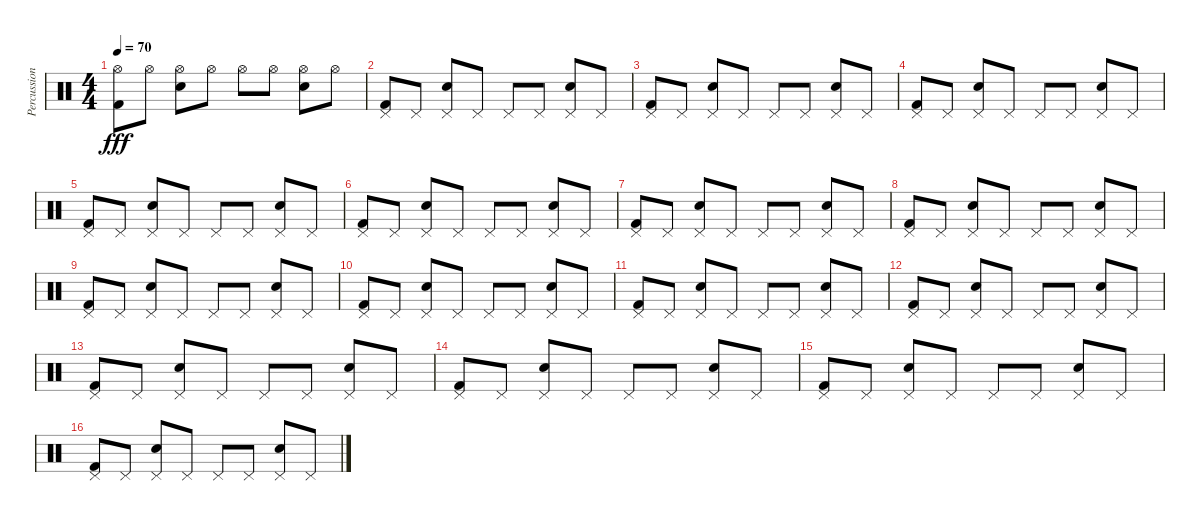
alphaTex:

\track ("Percussions" "Percussion") {instrument percussion}
\staff {score}
\articulation defaults
\ts (4 4)
\tempo 70
\clef neutral
\ks c
("Hi-Hat (open)" "Kick (hit) 2").8{dy fff} "Hi-Hat (open)".8 ("Hi-Hat (open)" "Electric Snare (hit)").8 "Hi-Hat (open)".8 "Hi-Hat (open)".8 "Hi-Hat (open)".8 ("Hi-Hat (open)" "Electric Snare (hit)").8 "Hi-Hat (open)".8 |
("Pedal Hi-Hat (hit)" "Kick (hit) 2").8 "Pedal Hi-Hat (hit)".8 ("Pedal Hi-Hat (hit)" "Electric Snare (hit)").8 "Pedal Hi-Hat (hit)".8 "Pedal Hi-Hat (hit)".8 "Pedal Hi-Hat (hit)".8 ("Pedal Hi-Hat (hit)" "Electric Snare (hit)").8 "Pedal Hi-Hat (hit)".8 |
("Pedal Hi-Hat (hit)" "Kick (hit) 2").8 "Pedal Hi-Hat (hit)".8 ("Pedal Hi-Hat (hit)" "Electric Snare (hit)").8 "Pedal Hi-Hat (hit)".8 "Pedal Hi-Hat (hit)".8 "Pedal Hi-Hat (hit)".8 ("Pedal Hi-Hat (hit)" "Electric Snare (hit)").8 "Pedal Hi-Hat (hit)".8 |
("Pedal Hi-Hat (hit)" "Kick (hit) 2").8 "Pedal Hi-Hat (hit)".8 ("Pedal Hi-Hat (hit)" "Electric Snare (hit)").8 "Pedal Hi-Hat (hit)".8 "Pedal Hi-Hat (hit)".8 "Pedal Hi-Hat (hit)".8 ("Pedal Hi-Hat (hit)" "Electric Snare (hit)").8 "Pedal Hi-Hat (hit)".8 |
("Pedal Hi-Hat (hit)" "Kick (hit) 2").8 "Pedal Hi-Hat (hit)".8 ("Pedal Hi-Hat (hit)" "Electric Snare (hit)").8 "Pedal Hi-Hat (hit)".8 "Pedal Hi-Hat (hit)".8 "Pedal Hi-Hat (hit)".8 ("Pedal Hi-Hat (hit)" "Electric Snare (hit)").8 "Pedal Hi-Hat (hit)".8 |
("Pedal Hi-Hat (hit)" "Kick (hit) 2").8 "Pedal Hi-Hat (hit)".8 ("Pedal Hi-Hat (hit)" "Electric Snare (hit)").8 "Pedal Hi-Hat (hit)".8 "Pedal Hi-Hat (hit)".8 "Pedal Hi-Hat (hit)".8 ("Pedal Hi-Hat (hit)" "Electric Snare (hit)").8 "Pedal Hi-Hat (hit)".8 |
("Pedal Hi-Hat (hit)" "Kick (hit) 2").8 "Pedal Hi-Hat (hit)".8 ("Pedal Hi-Hat (hit)" "Electric Snare (hit)").8 "Pedal Hi-Hat (hit)".8 "Pedal Hi-Hat (hit)".8 "Pedal Hi-Hat (hit)".8 ("Pedal Hi-Hat (hit)" "Electric Snare (hit)").8 "Pedal Hi-Hat (hit)".8 |
("Pedal Hi-Hat (hit)" "Kick (hit) 2").8 "Pedal Hi-Hat (hit)".8 ("Pedal Hi-Hat (hit)" "Electric Snare (hit)").8 "Pedal Hi-Hat (hit)".8 "Pedal Hi-Hat (hit)".8 "Pedal Hi-Hat (hit)".8 ("Pedal Hi-Hat (hit)" "Electric Snare (hit)").8 "Pedal Hi-Hat (hit)".8 |
("Pedal Hi-Hat (hit)" "Kick (hit) 2").8 "Pedal Hi-Hat (hit)".8 ("Pedal Hi-Hat (hit)" "Electric Snare (hit)").8 "Pedal Hi-Hat (hit)".8 "Pedal Hi-Hat (hit)".8 "Pedal Hi-Hat (hit)".8 ("Pedal Hi-Hat (hit)" "Electric Snare (hit)").8 "Pedal Hi-Hat (hit)".8 |
("Pedal Hi-Hat (hit)" "Kick (hit) 2").8 "Pedal Hi-Hat (hit)".8 ("Pedal Hi-Hat (hit)" "Electric Snare (hit)").8 "Pedal Hi-Hat (hit)".8 "Pedal Hi-Hat (hit)".8 "Pedal Hi-Hat (hit)".8 ("Pedal Hi-Hat (hit)" "Electric Snare (hit)").8 "Pedal Hi-Hat (hit)".8 |
("Pedal Hi-Hat (hit)" "Kick (hit) 2").8 "Pedal Hi-Hat (hit)".8 ("Pedal Hi-Hat (hit)" "Electric Snare (hit)").8 "Pedal Hi-Hat (hit)".8 "Pedal Hi-Hat (hit)".8 "Pedal Hi-Hat (hit)".8 ("Pedal Hi-Hat (hit)" "Electric Snare (hit)").8 "Pedal Hi-Hat (hit)".8 |
("Pedal Hi-Hat (hit)" "Kick (hit) 2").8 "Pedal Hi-Hat (hit)".8 ("Pedal Hi-Hat (hit)" "Electric Snare (hit)").8 "Pedal Hi-Hat (hit)".8 "Pedal Hi-Hat (hit)".8 "Pedal Hi-Hat (hit)".8 ("Pedal Hi-Hat (hit)" "Electric Snare (hit)").8 "Pedal Hi-Hat (hit)".8 |
("Pedal Hi-Hat (hit)" "Kick (hit) 2").8 "Pedal Hi-Hat (hit)".8 ("Pedal Hi-Hat (hit)" "Electric Snare (hit)").8 "Pedal Hi-Hat (hit)".8 "Pedal Hi-Hat (hit)".8 "Pedal Hi-Hat (hit)".8 ("Pedal Hi-Hat (hit)" "Electric Snare (hit)").8 "Pedal Hi-Hat (hit)".8 |
("Pedal Hi-Hat (hit)" "Kick (hit) 2").8 "Pedal Hi-Hat (hit)".8 ("Pedal Hi-Hat (hit)" "Electric Snare (hit)").8 "Pedal Hi-Hat (hit)".8 "Pedal Hi-Hat (hit)".8 "Pedal Hi-Hat (hit)".8 ("Pedal Hi-Hat (hit)" "Electric Snare (hit)").8 "Pedal Hi-Hat (hit)".8 |
("Pedal Hi-Hat (hit)" "Kick (hit) 2").8 "Pedal Hi-Hat (hit)".8 ("Pedal Hi-Hat (hit)" "Electric Snare (hit)").8 "Pedal Hi-Hat (hit)".8 "Pedal Hi-Hat (hit)".8 "Pedal Hi-Hat (hit)".8 ("Pedal Hi-Hat (hit)" "Electric Snare (hit)").8 "Pedal Hi-Hat (hit)".8 |
("Pedal Hi-Hat (hit)" "Kick (hit) 2").8 "Pedal Hi-Hat (hit)".8 ("Pedal Hi-Hat (hit)" "Electric Snare (hit)").8 "Pedal Hi-Hat (hit)".8 "Pedal Hi-Hat (hit)".8 "Pedal Hi-Hat (hit)".8 ("Pedal Hi-Hat (hit)" "Electric Snare (hit)").8 "Pedal Hi-Hat (hit)".8
